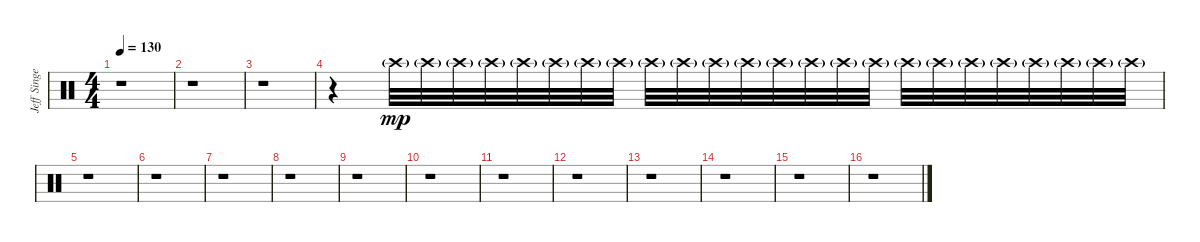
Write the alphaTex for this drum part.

\track ("Jeff Singer" "Jeff Singe") {instrument percussion}
\staff {score}
\articulation defaults
\ts (4 4)
\tempo 130
\clef neutral
\ks c
r.1{dy mp} |
r.1 |
r.1 |
r.4{volume 0} "Crash high (hit)"{g}.32{volume 16} "Crash high (hit)"{g}.32 "Crash high (hit)"{g}.32 "Crash high (hit)"{g}.32 "Crash high (hit)"{g}.32 "Crash high (hit)"{g}.32 "Crash high (hit)"{g}.32 "Crash high (hit)"{g}.32 "Crash high (hit)"{g}.32 "Crash high (hit)"{g}.32 "Crash high (hit)"{g}.32 "Crash high (hit)"{g}.32 "Crash high (hit)"{g}.32 "Crash high (hit)"{g}.32 "Crash high (hit)"{g}.32 "Crash high (hit)"{g}.32 "Crash high (hit)"{g}.32 "Crash high (hit)"{g}.32 "Crash high (hit)"{g}.32 "Crash high (hit)"{g}.32 "Crash high (hit)"{g}.32 "Crash high (hit)"{g}.32 "Crash high (hit)"{g}.32 "Crash high (hit)"{g}.32 |
r.1 |
r.1 |
r.1 |
r.1 |
r.1 |
r.1 |
r.1 |
r.1 |
r.1 |
r.1 |
r.1 |
r.1
